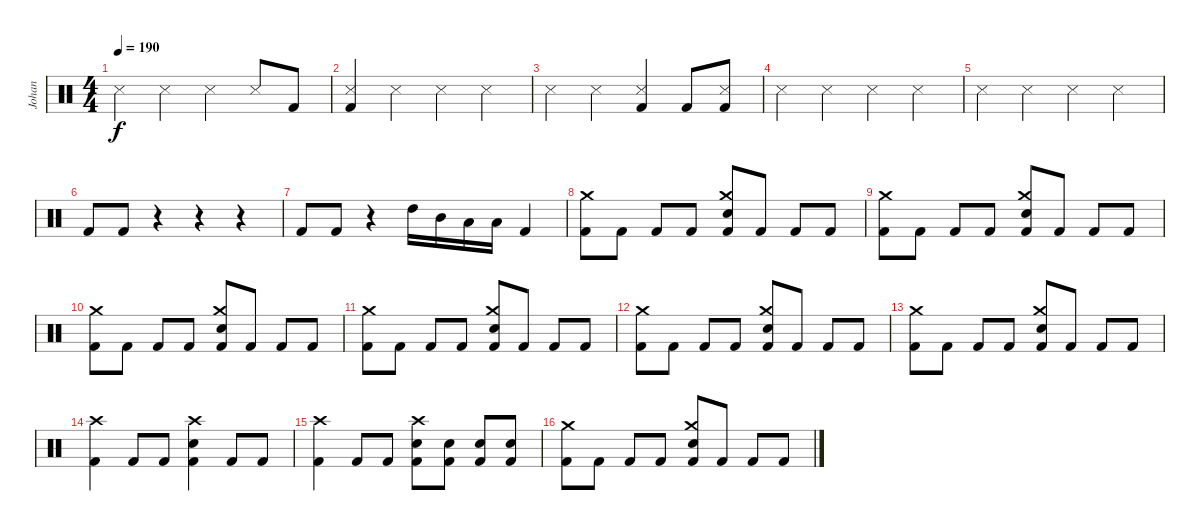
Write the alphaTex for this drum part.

\track ("Johan" "Johan") {instrument percussion}
\staff {score}
\articulation defaults
\ts (4 4)
\tempo 190
\clef neutral
\ks c "Snare (side stick) 3".4{dy f} "Snare (side stick) 3".4 "Snare (side stick) 3".4 "Snare (side stick) 3".8 "Kick (hit) 2".8
|
("Snare (side stick) 3" "Kick (hit) 2").4 "Snare (side stick) 3".4 "Snare (side stick) 3".4 "Snare (side stick) 3".4 |
"Snare (side stick) 3".4 "Snare (side stick) 3".4 ("Snare (side stick) 3" "Kick (hit) 2").4 "Kick (hit) 2".8 ("Snare (side stick) 3" "Kick (hit) 2").8 |
"Snare (side stick) 3".4 "Snare (side stick) 3".4 "Snare (side stick) 3".4 "Snare (side stick) 3".4 |
"Snare (side stick) 3".4 "Snare (side stick) 3".4 "Snare (side stick) 3".4 "Snare (side stick) 3".4 |
"Kick (hit) 2".8 "Kick (hit) 2".8 r.4 r.4 r.4 |
"Kick (hit) 2".8 "Kick (hit) 2".8 r.4 "High Tom (hit)".16 "Mid Tom (hit)".16 "Low Tom (hit)".16 "Low Floor Tom (hit)".16 "Kick (hit) 2".4 |
("Crash medium (hit)" "Kick (hit) 2").8 "Kick (hit) 2".8 "Kick (hit) 2".8 "Kick (hit) 2".8 ("Electric Snare (hit)" "Crash medium (hit)" "Kick (hit) 2").8 "Kick (hit) 2".8 "Kick (hit) 2".8 "Kick (hit) 2".8 |
("Crash medium (hit)" "Kick (hit) 2").8 "Kick (hit) 2".8 "Kick (hit) 2".8 "Kick (hit) 2".8 ("Electric Snare (hit)" "Crash medium (hit)" "Kick (hit) 2").8 "Kick (hit) 2".8 "Kick (hit) 2".8 "Kick (hit) 2".8 |
("Crash medium (hit)" "Kick (hit) 2").8 "Kick (hit) 2".8 "Kick (hit) 2".8 "Kick (hit) 2".8 ("Electric Snare (hit)" "Crash medium (hit)" "Kick (hit) 2").8 "Kick (hit) 2".8 "Kick (hit) 2".8 "Kick (hit) 2".8 |
("Crash medium (hit)" "Kick (hit) 2").8 "Kick (hit) 2".8 "Kick (hit) 2".8 "Kick (hit) 2".8 ("Electric Snare (hit)" "Crash medium (hit)" "Kick (hit) 2").8 "Kick (hit) 2".8 "Kick (hit) 2".8 "Kick (hit) 2".8 |
("Crash medium (hit)" "Kick (hit) 2").8 "Kick (hit) 2".8 "Kick (hit) 2".8 "Kick (hit) 2".8 ("Electric Snare (hit)" "Crash medium (hit)" "Kick (hit) 2").8 "Kick (hit) 2".8 "Kick (hit) 2".8 "Kick (hit) 2".8 |
("Crash medium (hit)" "Kick (hit) 2").8 "Kick (hit) 2".8 "Kick (hit) 2".8 "Kick (hit) 2".8 ("Electric Snare (hit)" "Crash medium (hit)" "Kick (hit) 2").8 "Kick (hit) 2".8 "Kick (hit) 2".8 "Kick (hit) 2".8 |
("Crash high (hit)" "Kick (hit) 2").4 "Kick (hit) 2".8 "Kick (hit) 2".8 ("Electric Snare (hit)" "Crash high (hit)" "Kick (hit) 2").4 "Kick (hit) 2".8 "Kick (hit) 2".8 |
("Crash high (hit)" "Kick (hit) 2").4 "Kick (hit) 2".8 "Kick (hit) 2".8 ("Electric Snare (hit)" "Crash high (hit)" "Kick (hit) 2").8 ("Electric Snare (hit)" "Kick (hit) 2").8 ("Electric Snare (hit)" "Kick (hit) 2").8 ("Electric Snare (hit)" "Kick (hit) 2").8 |
("Crash medium (hit)" "Kick (hit) 2").8 "Kick (hit) 2".8 "Kick (hit) 2".8 "Kick (hit) 2".8 ("Electric Snare (hit)" "Crash medium (hit)" "Kick (hit) 2").8 "Kick (hit) 2".8 "Kick (hit) 2".8 "Kick (hit) 2".8
